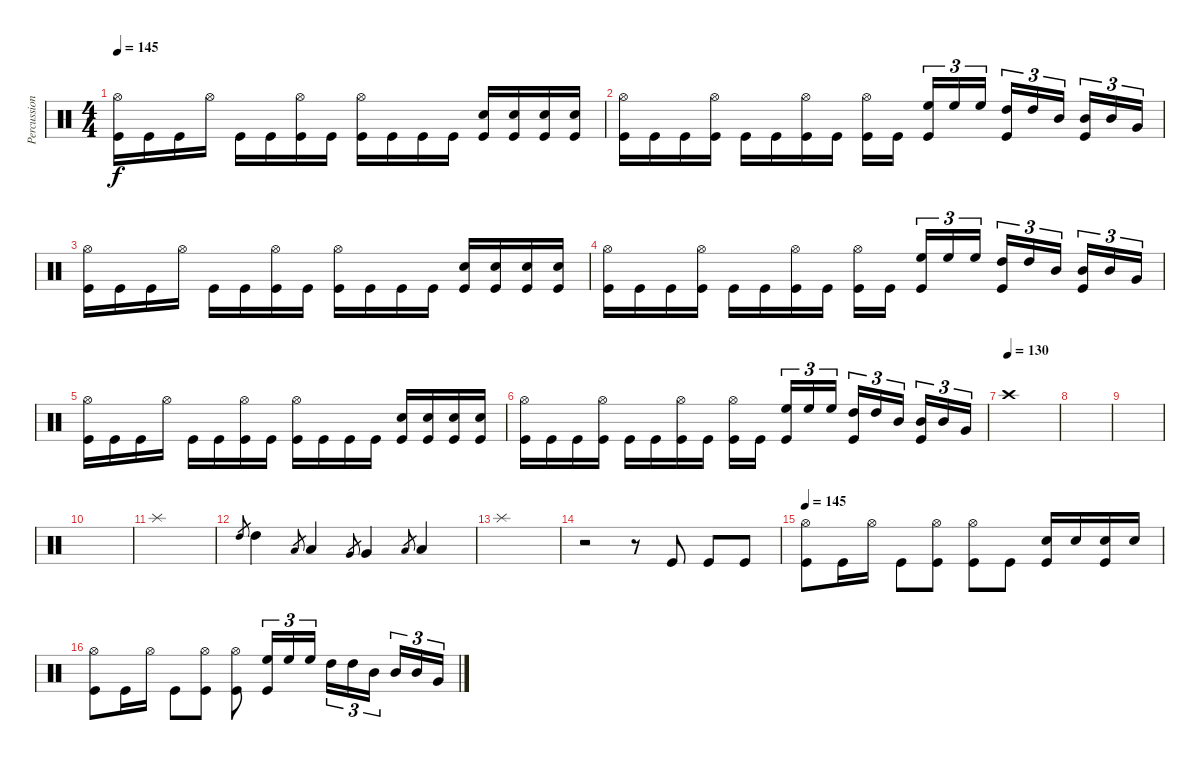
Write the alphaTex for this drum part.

\track ("Percussions" "Percussion") {instrument percussion}
\staff {score}
\articulation defaults
\ts (4 4)
\tempo 145
\clef neutral
\ks c
("Hi-Hat (open)" "Kick (hit)").16{dy f} "Kick (hit)".16 "Kick (hit)".16 "Hi-Hat (open)".16 "Kick (hit)".16 "Kick (hit)".16 ("Hi-Hat (open)" "Kick (hit)").16 "Kick (hit)".16 ("Hi-Hat (open)" "Kick (hit)").16 "Kick (hit)".16 "Kick (hit)".16 "Kick (hit)".16 ("Electric Snare (hit)" "Kick (hit)").16 ("Electric Snare (hit)" "Kick (hit)").16 ("Electric Snare (hit)" "Kick (hit)").16 ("Electric Snare (hit)" "Kick (hit)").16 |
("Hi-Hat (open)" "Kick (hit)").16 "Kick (hit)".16 "Kick (hit)".16 ("Hi-Hat (open)" "Kick (hit)").16 "Kick (hit)".16 "Kick (hit)".16 ("Hi-Hat (open)" "Kick (hit)").16 "Kick (hit)".16 ("Hi-Hat (open)" "Kick (hit)").16 "Kick (hit)".16 ("High Floor Tom (hit)" "Kick (hit)").16{tu (3 2)} "High Floor Tom (hit)".16{tu (3 2)} "High Floor Tom (hit)".16{tu (3 2)} ("High Tom (hit)" "Kick (hit)").16{tu (3 2)} "High Tom (hit)".16{tu (3 2)} "Mid Tom (hit)".16{tu (3 2)} ("Mid Tom (hit)" "Kick (hit)").16{tu (3 2)} "Mid Tom (hit)".16{tu (3 2)} "Very Low Tom (hit)".16{tu (3 2)} |
("Hi-Hat (open)" "Kick (hit)").16 "Kick (hit)".16 "Kick (hit)".16 "Hi-Hat (open)".16 "Kick (hit)".16 "Kick (hit)".16 ("Hi-Hat (open)" "Kick (hit)").16 "Kick (hit)".16 ("Hi-Hat (open)" "Kick (hit)").16 "Kick (hit)".16 "Kick (hit)".16 "Kick (hit)".16 ("Electric Snare (hit)" "Kick (hit)").16 ("Electric Snare (hit)" "Kick (hit)").16 ("Electric Snare (hit)" "Kick (hit)").16 ("Electric Snare (hit)" "Kick (hit)").16 |
("Hi-Hat (open)" "Kick (hit)").16 "Kick (hit)".16 "Kick (hit)".16 ("Hi-Hat (open)" "Kick (hit)").16 "Kick (hit)".16 "Kick (hit)".16 ("Hi-Hat (open)" "Kick (hit)").16 "Kick (hit)".16 ("Hi-Hat (open)" "Kick (hit)").16 "Kick (hit)".16 ("High Floor Tom (hit)" "Kick (hit)").16{tu (3 2)} "High Floor Tom (hit)".16{tu (3 2)} "High Floor Tom (hit)".16{tu (3 2)} ("High Tom (hit)" "Kick (hit)").16{tu (3 2)} "High Tom (hit)".16{tu (3 2)} "Mid Tom (hit)".16{tu (3 2)} ("Mid Tom (hit)" "Kick (hit)").16{tu (3 2)} "Mid Tom (hit)".16{tu (3 2)} "Very Low Tom (hit)".16{tu (3 2)} |
("Hi-Hat (open)" "Kick (hit)").16 "Kick (hit)".16 "Kick (hit)".16 "Hi-Hat (open)".16 "Kick (hit)".16 "Kick (hit)".16 ("Hi-Hat (open)" "Kick (hit)").16 "Kick (hit)".16 ("Hi-Hat (open)" "Kick (hit)").16 "Kick (hit)".16 "Kick (hit)".16 "Kick (hit)".16 ("Electric Snare (hit)" "Kick (hit)").16 ("Electric Snare (hit)" "Kick (hit)").16 ("Electric Snare (hit)" "Kick (hit)").16 ("Electric Snare (hit)" "Kick (hit)").16 |
("Hi-Hat (open)" "Kick (hit)").16 "Kick (hit)".16 "Kick (hit)".16 ("Hi-Hat (open)" "Kick (hit)").16 "Kick (hit)".16 "Kick (hit)".16 ("Hi-Hat (open)" "Kick (hit)").16 "Kick (hit)".16 ("Hi-Hat (open)" "Kick (hit)").16 "Kick (hit)".16 ("High Floor Tom (hit)" "Kick (hit)").16{tu (3 2)} "High Floor Tom (hit)".16{tu (3 2)} "High Floor Tom (hit)".16{tu (3 2)} ("High Tom (hit)" "Kick (hit)").16{tu (3 2)} "High Tom (hit)".16{tu (3 2)} "Mid Tom (hit)".16{tu (3 2)} ("Mid Tom (hit)" "Kick (hit)").16{tu (3 2)} "Mid Tom (hit)".16{tu (3 2)} "Very Low Tom (hit)".16{tu (3 2)} |
\tempo (130)
"Crash high (hit)".1 |
|
|
|
"Splash (hit)".1 |
"High Tom (hit)".8{gr} "High Tom (hit)".4 "Low Tom (hit)".8{gr} "Low Tom (hit)".4 "Very Low Tom (hit)".8{gr} "Very Low Tom (hit)".4 "Low Floor Tom (hit)".8{gr} "Low Floor Tom (hit)".4 |
"Splash (hit)".1 |
r.2 r.8 "Kick (hit)".8 "Kick (hit)".8 "Kick (hit)".8 |
\tempo 145
("Hi-Hat (open)" "Kick (hit)").8 "Kick (hit)".16 "Hi-Hat (open)".16 "Kick (hit)".8 ("Hi-Hat (open)" "Kick (hit)").8 ("Hi-Hat (open)" "Kick (hit)").8 "Kick (hit)".8 ("Electric Snare (hit)" "Kick (hit)").16 "Electric Snare (hit)".16 ("Electric Snare (hit)" "Kick (hit)").16 "Electric Snare (hit)".16 |
("Hi-Hat (open)" "Kick (hit)").8 "Kick (hit)".16 "Hi-Hat (open)".16 "Kick (hit)".8 ("Hi-Hat (open)" "Kick (hit)").8 ("Hi-Hat (open)" "Kick (hit)").8 ("High Floor Tom (hit)" "Kick (hit)").16{tu (3 2)} "High Floor Tom (hit)".16{tu (3 2)} "High Floor Tom (hit)".16{tu (3 2)} "High Tom (hit)".16{tu (3 2)} "High Tom (hit)".16{tu (3 2)} "Mid Tom (hit)".16{tu (3 2)} "Mid Tom (hit)".16{tu (3 2)} "Mid Tom (hit)".16{tu (3 2)} "Very Low Tom (hit)".16{tu (3 2)}
